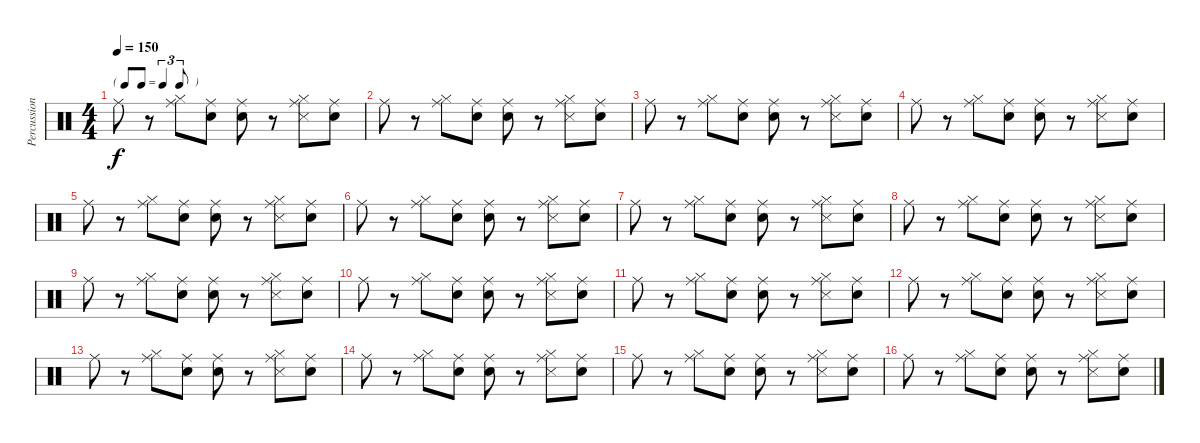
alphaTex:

\track ("Percussions" "Percussion") {instrument percussion}
\staff {score}
\articulation defaults
\ts (4 4)
\tf triplet8th
\tempo 150
\clef neutral
\ks c "Ride (middle)".8{dy f}
r.8 ("Hi-Hat (closed)" "Ride (middle)").8 ("Snare (hit)" "Ride (middle)").8 ("Snare (hit)" "Ride (middle)").8 r.8 ("Hi-Hat (closed)" "Snare (side stick) 3" "Ride (middle)").8 ("Snare (hit)" "Ride (middle)").8 |
"Ride (middle)".8 r.8 ("Hi-Hat (closed)" "Ride (middle)").8 ("Snare (hit)" "Ride (middle)").8 ("Snare (hit)" "Ride (middle)").8 r.8 ("Hi-Hat (closed)" "Snare (side stick) 3" "Ride (middle)").8 ("Snare (hit)" "Ride (middle)").8 |
"Ride (middle)".8 r.8 ("Hi-Hat (closed)" "Ride (middle)").8 ("Snare (hit)" "Ride (middle)").8 ("Snare (hit)" "Ride (middle)").8 r.8 ("Hi-Hat (closed)" "Snare (side stick) 3" "Ride (middle)").8 ("Snare (hit)" "Ride (middle)").8 |
"Ride (middle)".8 r.8 ("Hi-Hat (closed)" "Ride (middle)").8 ("Snare (hit)" "Ride (middle)").8 ("Snare (hit)" "Ride (middle)").8 r.8 ("Hi-Hat (closed)" "Snare (side stick) 3" "Ride (middle)").8 ("Snare (hit)" "Ride (middle)").8 |
"Ride (middle)".8 r.8 ("Hi-Hat (closed)" "Ride (middle)").8 ("Snare (hit)" "Ride (middle)").8 ("Snare (hit)" "Ride (middle)").8 r.8 ("Hi-Hat (closed)" "Snare (side stick) 3" "Ride (middle)").8 ("Snare (hit)" "Ride (middle)").8 |
"Ride (middle)".8 r.8 ("Hi-Hat (closed)" "Ride (middle)").8 ("Snare (hit)" "Ride (middle)").8 ("Snare (hit)" "Ride (middle)").8 r.8 ("Hi-Hat (closed)" "Snare (side stick) 3" "Ride (middle)").8 ("Snare (hit)" "Ride (middle)").8 |
"Ride (middle)".8 r.8 ("Hi-Hat (closed)" "Ride (middle)").8 ("Snare (hit)" "Ride (middle)").8 ("Snare (hit)" "Ride (middle)").8 r.8 ("Hi-Hat (closed)" "Snare (side stick) 3" "Ride (middle)").8 ("Snare (hit)" "Ride (middle)").8 |
"Ride (middle)".8 r.8 ("Hi-Hat (closed)" "Ride (middle)").8 ("Snare (hit)" "Ride (middle)").8 ("Snare (hit)" "Ride (middle)").8 r.8 ("Hi-Hat (closed)" "Snare (side stick) 3" "Ride (middle)").8 ("Snare (hit)" "Ride (middle)").8 |
"Ride (middle)".8 r.8 ("Hi-Hat (closed)" "Ride (middle)").8 ("Snare (hit)" "Ride (middle)").8 ("Snare (hit)" "Ride (middle)").8 r.8 ("Hi-Hat (closed)" "Snare (side stick) 3" "Ride (middle)").8 ("Snare (hit)" "Ride (middle)").8 |
"Ride (middle)".8 r.8 ("Hi-Hat (closed)" "Ride (middle)").8 ("Snare (hit)" "Ride (middle)").8 ("Snare (hit)" "Ride (middle)").8 r.8 ("Hi-Hat (closed)" "Snare (side stick) 3" "Ride (middle)").8 ("Snare (hit)" "Ride (middle)").8 |
"Ride (middle)".8 r.8 ("Hi-Hat (closed)" "Ride (middle)").8 ("Snare (hit)" "Ride (middle)").8 ("Snare (hit)" "Ride (middle)").8 r.8 ("Hi-Hat (closed)" "Snare (side stick) 3" "Ride (middle)").8 ("Snare (hit)" "Ride (middle)").8 |
"Ride (middle)".8 r.8 ("Hi-Hat (closed)" "Ride (middle)").8 ("Snare (hit)" "Ride (middle)").8 ("Snare (hit)" "Ride (middle)").8 r.8 ("Hi-Hat (closed)" "Snare (side stick) 3" "Ride (middle)").8 ("Snare (hit)" "Ride (middle)").8 |
"Ride (middle)".8 r.8 ("Hi-Hat (closed)" "Ride (middle)").8 ("Snare (hit)" "Ride (middle)").8 ("Snare (hit)" "Ride (middle)").8 r.8 ("Hi-Hat (closed)" "Snare (side stick) 3" "Ride (middle)").8 ("Snare (hit)" "Ride (middle)").8 |
"Ride (middle)".8 r.8 ("Hi-Hat (closed)" "Ride (middle)").8 ("Snare (hit)" "Ride (middle)").8 ("Snare (hit)" "Ride (middle)").8 r.8 ("Hi-Hat (closed)" "Snare (side stick) 3" "Ride (middle)").8 ("Snare (hit)" "Ride (middle)").8 |
"Ride (middle)".8 r.8 ("Hi-Hat (closed)" "Ride (middle)").8 ("Snare (hit)" "Ride (middle)").8 ("Snare (hit)" "Ride (middle)").8 r.8 ("Hi-Hat (closed)" "Snare (side stick) 3" "Ride (middle)").8 ("Snare (hit)" "Ride (middle)").8 |
"Ride (middle)".8 r.8 ("Hi-Hat (closed)" "Ride (middle)").8 ("Snare (hit)" "Ride (middle)").8 ("Snare (hit)" "Ride (middle)").8 r.8 ("Hi-Hat (closed)" "Snare (side stick) 3" "Ride (middle)").8 ("Snare (hit)" "Ride (middle)").8
